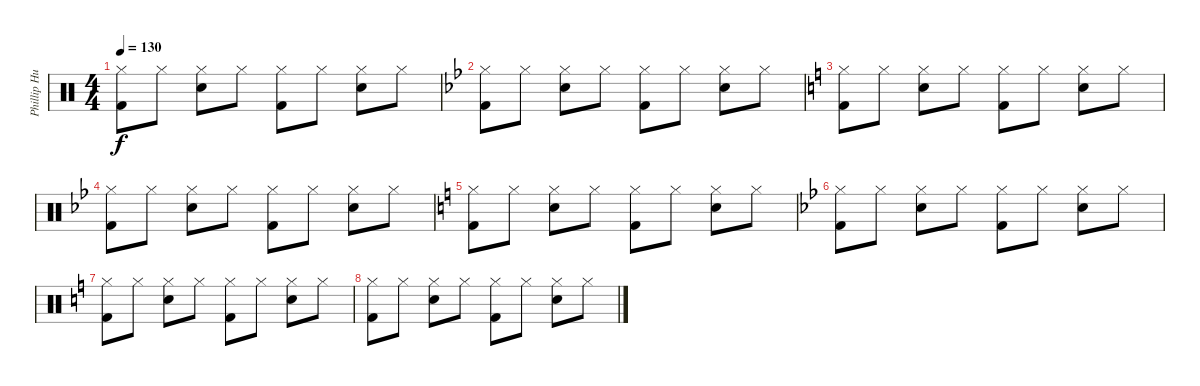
\track ("Phillip Hungh" "Phillip Hu") {instrument percussion}
\staff {score}
\articulation defaults
\ts (4 4)
\tempo 130
\clef neutral
\ks c
("Hi-Hat (closed)" "Kick (hit) 2").8{dy f} "Hi-Hat (closed)".8 ("Hi-Hat (closed)" "Snare (hit) 2").8 "Hi-Hat (closed)".8 ("Hi-Hat (closed)" "Kick (hit) 2").8 "Hi-Hat (closed)".8 ("Hi-Hat (closed)" "Snare (hit) 2").8 "Hi-Hat (closed)".8 |
\ks bb
("Hi-Hat (closed)" "Kick (hit) 2").8 "Hi-Hat (closed)".8 ("Hi-Hat (closed)" "Snare (hit) 2").8 "Hi-Hat (closed)".8 ("Hi-Hat (closed)" "Kick (hit) 2").8 "Hi-Hat (closed)".8 ("Hi-Hat (closed)" "Snare (hit) 2").8 "Hi-Hat (closed)".8 |
\ks c
("Hi-Hat (closed)" "Kick (hit) 2").8 "Hi-Hat (closed)".8 ("Hi-Hat (closed)" "Snare (hit) 2").8 "Hi-Hat (closed)".8 ("Hi-Hat (closed)" "Kick (hit) 2").8 "Hi-Hat (closed)".8 ("Hi-Hat (closed)" "Snare (hit) 2").8 "Hi-Hat (closed)".8 |
\ks bb
("Hi-Hat (closed)" "Kick (hit) 2").8 "Hi-Hat (closed)".8 ("Hi-Hat (closed)" "Snare (hit) 2").8 "Hi-Hat (closed)".8 ("Hi-Hat (closed)" "Kick (hit) 2").8 "Hi-Hat (closed)".8 ("Hi-Hat (closed)" "Snare (hit) 2").8 "Hi-Hat (closed)".8 |
\ks c
("Hi-Hat (closed)" "Kick (hit) 2").8 "Hi-Hat (closed)".8 ("Hi-Hat (closed)" "Snare (hit) 2").8 "Hi-Hat (closed)".8 ("Hi-Hat (closed)" "Kick (hit) 2").8 "Hi-Hat (closed)".8 ("Hi-Hat (closed)" "Snare (hit) 2").8 "Hi-Hat (closed)".8 |
\ks bb
("Hi-Hat (closed)" "Kick (hit) 2").8 "Hi-Hat (closed)".8 ("Hi-Hat (closed)" "Snare (hit) 2").8 "Hi-Hat (closed)".8 ("Hi-Hat (closed)" "Kick (hit) 2").8 "Hi-Hat (closed)".8 ("Hi-Hat (closed)" "Snare (hit) 2").8 "Hi-Hat (closed)".8 |
\ks c
("Hi-Hat (closed)" "Kick (hit) 2").8 "Hi-Hat (closed)".8 ("Hi-Hat (closed)" "Snare (hit) 2").8 "Hi-Hat (closed)".8 ("Hi-Hat (closed)" "Kick (hit) 2").8 "Hi-Hat (closed)".8 ("Hi-Hat (closed)" "Snare (hit) 2").8 "Hi-Hat (closed)".8 |
("Hi-Hat (closed)" "Kick (hit) 2").8 "Hi-Hat (closed)".8 ("Hi-Hat (closed)" "Snare (hit) 2").8 "Hi-Hat (closed)".8 ("Hi-Hat (closed)" "Kick (hit) 2").8 "Hi-Hat (closed)".8 ("Hi-Hat (closed)" "Snare (hit) 2").8 "Hi-Hat (closed)".8
